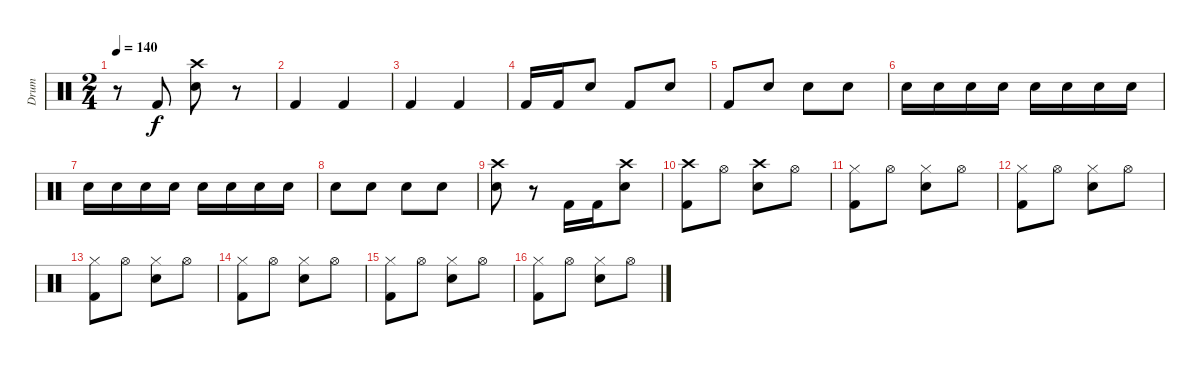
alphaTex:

\track ("Drum" "Drum") {instrument percussion}
\staff {score}
\articulation defaults
\ts (2 4)
\tempo 140
\clef neutral
\ks c
r.8{dy f} "Kick (hit) 2".8 ("Electric Snare (hit)" "Crash high (hit)").8 r.8 |
"Kick (hit) 2".4 "Kick (hit) 2".4 |
"Kick (hit) 2".4 "Kick (hit) 2".4 |
"Kick (hit) 2".16 "Kick (hit) 2".16 "Electric Snare (hit)".8 "Kick (hit) 2".8 "Electric Snare (hit)".8 |
"Kick (hit) 2".8 "Electric Snare (hit)".8 "Electric Snare (hit)".8 "Electric Snare (hit)".8 |
"Electric Snare (hit)".16 "Electric Snare (hit)".16 "Electric Snare (hit)".16 "Electric Snare (hit)".16 "Electric Snare (hit)".16 "Electric Snare (hit)".16 "Electric Snare (hit)".16 "Electric Snare (hit)".16 |
"Electric Snare (hit)".16 "Electric Snare (hit)".16 "Electric Snare (hit)".16 "Electric Snare (hit)".16 "Electric Snare (hit)".16 "Electric Snare (hit)".16 "Electric Snare (hit)".16 "Electric Snare (hit)".16 |
"Electric Snare (hit)".8 "Electric Snare (hit)".8 "Electric Snare (hit)".8 "Electric Snare (hit)".8 |
("Electric Snare (hit)" "Crash high (hit)").8 r.8 "Kick (hit) 2".16 "Kick (hit) 2".16 ("Electric Snare (hit)" "Crash high (hit)").8 |
("Crash high (hit)" "Kick (hit) 2").8 "Hi-Hat (open)".8 ("Crash high (hit)" "Electric Snare (hit)").8 "Hi-Hat (open)".8 |
("Kick (hit) 2" "Hi-Hat (closed)").8 "Hi-Hat (open)".8 ("Hi-Hat (closed)" "Electric Snare (hit)").8 "Hi-Hat (open)".8 |
("Kick (hit) 2" "Hi-Hat (closed)").8 "Hi-Hat (open)".8 ("Hi-Hat (closed)" "Electric Snare (hit)").8 "Hi-Hat (open)".8 |
("Kick (hit) 2" "Hi-Hat (closed)").8 "Hi-Hat (open)".8 ("Hi-Hat (closed)" "Electric Snare (hit)").8 "Hi-Hat (open)".8 |
("Kick (hit) 2" "Hi-Hat (closed)").8 "Hi-Hat (open)".8 ("Hi-Hat (closed)" "Electric Snare (hit)").8 "Hi-Hat (open)".8 |
("Hi-Hat (closed)" "Kick (hit) 2").8 "Hi-Hat (open)".8 ("Hi-Hat (closed)" "Electric Snare (hit)").8 "Hi-Hat (open)".8 |
("Hi-Hat (closed)" "Kick (hit) 2").8 "Hi-Hat (open)".8 ("Hi-Hat (closed)" "Electric Snare (hit)").8 "Hi-Hat (open)".8
